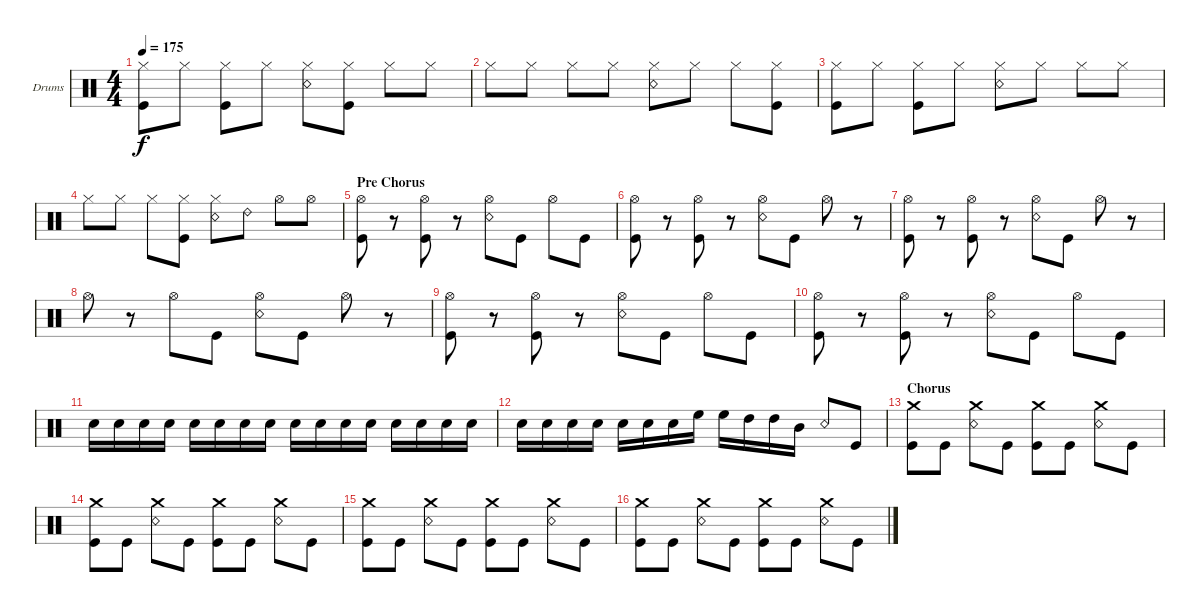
\bracketExtendMode groupsimilarinstruments
\firstSystemTrackNameOrientation horizontal
\otherSystemsTrackNameOrientation horizontal
\track ("Kanky Lora" "Drums") {instrument percussion}
\staff {score}
\articulation defaults
\ts (4 4)
\tempo 175
\clef neutral
\ks c
("Hi-Hat (closed)" "Kick (hit)").8{dy f} "Hi-Hat (closed)".8 ("Hi-Hat (closed)" "Kick (hit)").8 "Hi-Hat (closed)".8 ("Hi-Hat (closed)" "Snare (rim shot)").8 ("Hi-Hat (closed)" "Kick (hit)").8 "Hi-Hat (closed)".8 "Hi-Hat (closed)".8 |
"Hi-Hat (closed)".8 "Hi-Hat (closed)".8 "Hi-Hat (closed)".8 "Hi-Hat (closed)".8 ("Hi-Hat (closed)" "Snare (rim shot)").8 "Hi-Hat (closed)".8 "Hi-Hat (closed)".8 ("Hi-Hat (closed)" "Kick (hit)").8 |
("Hi-Hat (closed)" "Kick (hit)").8 "Hi-Hat (closed)".8 ("Hi-Hat (closed)" "Kick (hit)").8 "Hi-Hat (closed)".8 ("Hi-Hat (closed)" "Snare (rim shot)").8 "Hi-Hat (closed)".8 "Hi-Hat (closed)".8 "Hi-Hat (closed)".8 |
"Hi-Hat (closed)".8 "Hi-Hat (closed)".8 "Hi-Hat (closed)".8 ("Hi-Hat (closed)" "Kick (hit)").8 ("Hi-Hat (closed)" "Snare (rim shot)").8 "Ride (bell) 2".8 "Hi-Hat (open)".8 "Hi-Hat (open)".8 |
\section ("" "Pre Chorus")
("Hi-Hat (open)" "Kick (hit)").8 r.8 ("Hi-Hat (open)" "Kick (hit)").8 r.8 ("Hi-Hat (open)" "Snare (rim shot)").8 "Kick (hit)".8 "Hi-Hat (open)".8 "Kick (hit)".8 |
("Hi-Hat (open)" "Kick (hit)").8 r.8 ("Hi-Hat (open)" "Kick (hit)").8 r.8 ("Hi-Hat (open)" "Snare (rim shot)").8 "Kick (hit)".8 "Hi-Hat (open)".8 r.8 |
("Hi-Hat (open)" "Kick (hit)").8 r.8 ("Hi-Hat (open)" "Kick (hit)").8 r.8 ("Hi-Hat (open)" "Snare (rim shot)").8 "Kick (hit)".8 "Hi-Hat (open)".8 r.8 |
"Hi-Hat (open)".8 r.8 "Hi-Hat (open)".8 "Kick (hit)".8 ("Hi-Hat (open)" "Snare (rim shot)").8 "Kick (hit)".8 "Hi-Hat (open)".8 r.8 |
("Hi-Hat (open)" "Kick (hit)").8 r.8 ("Hi-Hat (open)" "Kick (hit)").8 r.8 ("Hi-Hat (open)" "Snare (rim shot)").8 "Kick (hit)".8 "Hi-Hat (open)".8 "Kick (hit)".8 |
("Hi-Hat (open)" "Kick (hit)").8 r.8 ("Hi-Hat (open)" "Kick (hit)").8 r.8 ("Hi-Hat (open)" "Snare (rim shot)").8 "Kick (hit)".8 "Hi-Hat (open)".8 "Kick (hit)".8 |
"Snare (hit) 2".16 "Snare (hit) 2".16 "Snare (hit) 2".16 "Snare (hit) 2".16 "Snare (hit) 2".16 "Snare (hit) 2".16 "Snare (hit) 2".16 "Snare (hit) 2".16 "Snare (hit) 2".16 "Snare (hit) 2".16 "Snare (hit) 2".16 "Snare (hit) 2".16 "Snare (hit) 2".16 "Snare (hit) 2".16 "Snare (hit) 2".16 "Snare (hit) 2".16 |
"Snare (hit) 2".16 "Snare (hit) 2".16 "Snare (hit) 2".16 "Snare (hit) 2".16 "Snare (hit) 2".16 "Snare (hit) 2".16 "Snare (hit) 2".16 "High Floor Tom (hit)".16 "High Floor Tom (hit)".16 "High Tom (hit)".16 "High Tom (hit)".16 "Mid Tom (hit)".16 "Snare (rim shot)".8 "Kick (hit)".8 |
\section ("" "Chorus")
("Kick (hit)" "Crash medium (hit)").8 "Kick (hit)".8 ("Snare (rim shot)" "Crash medium (hit)").8 "Kick (hit)".8 ("Kick (hit)" "Crash medium (hit)").8 "Kick (hit)".8 ("Snare (rim shot)" "Crash medium (hit)").8 "Kick (hit)".8 |
("Kick (hit)" "Crash medium (hit)").8 "Kick (hit)".8 ("Snare (rim shot)" "Crash medium (hit)").8 "Kick (hit)".8 ("Kick (hit)" "Crash medium (hit)").8 "Kick (hit)".8 ("Snare (rim shot)" "Crash medium (hit)").8 "Kick (hit)".8 |
("Kick (hit)" "Crash medium (hit)").8 "Kick (hit)".8 ("Snare (rim shot)" "Crash medium (hit)").8 "Kick (hit)".8 ("Kick (hit)" "Crash medium (hit)").8 "Kick (hit)".8 ("Snare (rim shot)" "Crash medium (hit)").8 "Kick (hit)".8 |
("Kick (hit)" "Crash medium (hit)").8 "Kick (hit)".8 ("Snare (rim shot)" "Crash medium (hit)").8 "Kick (hit)".8 ("Kick (hit)" "Crash medium (hit)").8 "Kick (hit)".8 ("Snare (rim shot)" "Crash medium (hit)").8 "Kick (hit)".8
